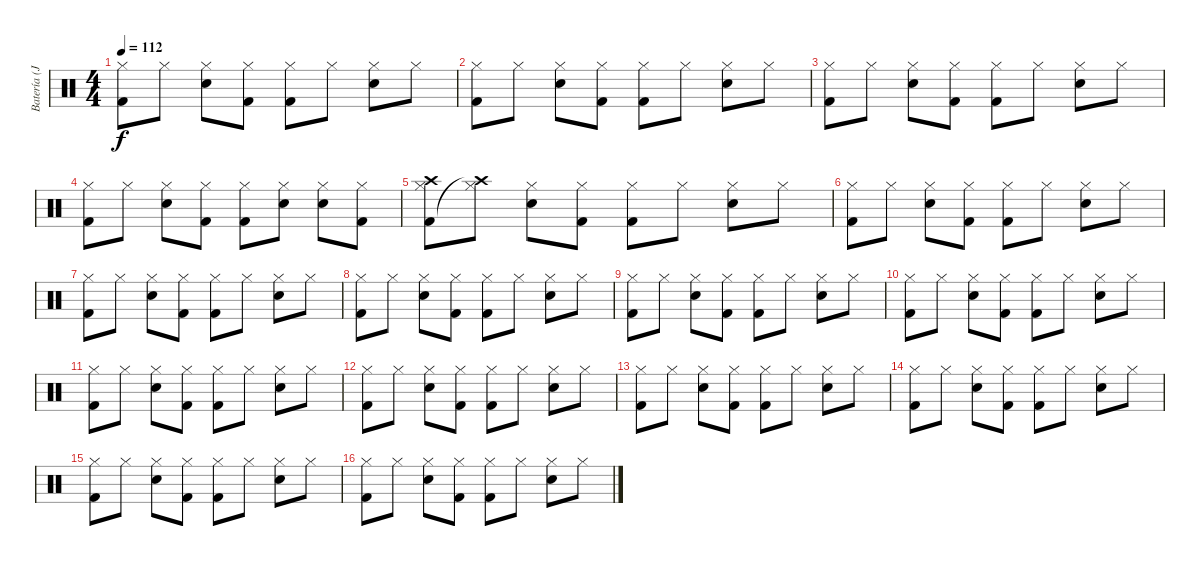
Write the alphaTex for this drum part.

\track ("Batería (Javi Molina)" "Batería (J") {instrument percussion}
\staff {score}
\articulation defaults
\ts (4 4)
\tempo 112
\clef neutral
\ks c
("Hi-Hat (closed)" "Kick (hit) 2").8{dy f} "Hi-Hat (closed)".8 ("Hi-Hat (closed)" "Electric Snare (hit)").8 ("Hi-Hat (closed)" "Kick (hit) 2").8 ("Hi-Hat (closed)" "Kick (hit) 2").8 "Hi-Hat (closed)".8 ("Hi-Hat (closed)" "Electric Snare (hit)").8 "Hi-Hat (closed)".8 |
("Hi-Hat (closed)" "Kick (hit) 2").8 "Hi-Hat (closed)".8 ("Hi-Hat (closed)" "Electric Snare (hit)").8 ("Hi-Hat (closed)" "Kick (hit) 2").8 ("Hi-Hat (closed)" "Kick (hit) 2").8 "Hi-Hat (closed)".8 ("Hi-Hat (closed)" "Electric Snare (hit)").8 "Hi-Hat (closed)".8 |
("Hi-Hat (closed)" "Kick (hit) 2").8 "Hi-Hat (closed)".8 ("Hi-Hat (closed)" "Electric Snare (hit)").8 ("Hi-Hat (closed)" "Kick (hit) 2").8 ("Hi-Hat (closed)" "Kick (hit) 2").8 "Hi-Hat (closed)".8 ("Hi-Hat (closed)" "Electric Snare (hit)").8 "Hi-Hat (closed)".8 |
("Hi-Hat (closed)" "Kick (hit) 2").8 "Hi-Hat (closed)".8 ("Hi-Hat (closed)" "Electric Snare (hit)").8 ("Hi-Hat (closed)" "Kick (hit) 2").8 ("Hi-Hat (closed)" "Kick (hit) 2").8 ("Hi-Hat (closed)" "Electric Snare (hit)").8 ("Hi-Hat (closed)" "Electric Snare (hit)").8 ("Hi-Hat (closed)" "Kick (hit) 2").8 |
("Hi-Hat (closed)" "Kick (hit) 2" "Crash high (hit)").8 ("Hi-Hat (closed)" "Crash high (hit)"{t}).8 ("Hi-Hat (closed)" "Electric Snare (hit)").8 ("Hi-Hat (closed)" "Kick (hit) 2").8 ("Hi-Hat (closed)" "Kick (hit) 2").8 "Hi-Hat (closed)".8 ("Hi-Hat (closed)" "Electric Snare (hit)").8 "Hi-Hat (closed)".8 |
("Hi-Hat (closed)" "Kick (hit) 2").8 "Hi-Hat (closed)".8 ("Hi-Hat (closed)" "Electric Snare (hit)").8 ("Hi-Hat (closed)" "Kick (hit) 2").8 ("Hi-Hat (closed)" "Kick (hit) 2").8 "Hi-Hat (closed)".8 ("Hi-Hat (closed)" "Electric Snare (hit)").8 "Hi-Hat (closed)".8 |
("Hi-Hat (closed)" "Kick (hit) 2").8 "Hi-Hat (closed)".8 ("Hi-Hat (closed)" "Electric Snare (hit)").8 ("Hi-Hat (closed)" "Kick (hit) 2").8 ("Hi-Hat (closed)" "Kick (hit) 2").8 "Hi-Hat (closed)".8 ("Hi-Hat (closed)" "Electric Snare (hit)").8 "Hi-Hat (closed)".8 |
("Hi-Hat (closed)" "Kick (hit) 2").8 "Hi-Hat (closed)".8 ("Hi-Hat (closed)" "Electric Snare (hit)").8 ("Hi-Hat (closed)" "Kick (hit) 2").8 ("Hi-Hat (closed)" "Kick (hit) 2").8 "Hi-Hat (closed)".8 ("Hi-Hat (closed)" "Electric Snare (hit)").8 "Hi-Hat (closed)".8 |
("Hi-Hat (closed)" "Kick (hit) 2").8 "Hi-Hat (closed)".8 ("Hi-Hat (closed)" "Electric Snare (hit)").8 ("Hi-Hat (closed)" "Kick (hit) 2").8 ("Hi-Hat (closed)" "Kick (hit) 2").8 "Hi-Hat (closed)".8 ("Hi-Hat (closed)" "Electric Snare (hit)").8 "Hi-Hat (closed)".8 |
("Hi-Hat (closed)" "Kick (hit) 2").8 "Hi-Hat (closed)".8 ("Hi-Hat (closed)" "Electric Snare (hit)").8 ("Hi-Hat (closed)" "Kick (hit) 2").8 ("Hi-Hat (closed)" "Kick (hit) 2").8 "Hi-Hat (closed)".8 ("Hi-Hat (closed)" "Electric Snare (hit)").8 "Hi-Hat (closed)".8 |
("Hi-Hat (closed)" "Kick (hit) 2").8 "Hi-Hat (closed)".8 ("Hi-Hat (closed)" "Electric Snare (hit)").8 ("Hi-Hat (closed)" "Kick (hit) 2").8 ("Hi-Hat (closed)" "Kick (hit) 2").8 "Hi-Hat (closed)".8 ("Hi-Hat (closed)" "Electric Snare (hit)").8 "Hi-Hat (closed)".8 |
("Hi-Hat (closed)" "Kick (hit) 2").8 "Hi-Hat (closed)".8 ("Hi-Hat (closed)" "Electric Snare (hit)").8 ("Hi-Hat (closed)" "Kick (hit) 2").8 ("Hi-Hat (closed)" "Kick (hit) 2").8 "Hi-Hat (closed)".8 ("Hi-Hat (closed)" "Electric Snare (hit)").8 "Hi-Hat (closed)".8 |
("Hi-Hat (closed)" "Kick (hit) 2").8 "Hi-Hat (closed)".8 ("Hi-Hat (closed)" "Electric Snare (hit)").8 ("Hi-Hat (closed)" "Kick (hit) 2").8 ("Hi-Hat (closed)" "Kick (hit) 2").8 "Hi-Hat (closed)".8 ("Hi-Hat (closed)" "Electric Snare (hit)").8 "Hi-Hat (closed)".8 |
("Hi-Hat (closed)" "Kick (hit) 2").8 "Hi-Hat (closed)".8 ("Hi-Hat (closed)" "Electric Snare (hit)").8 ("Hi-Hat (closed)" "Kick (hit) 2").8 ("Hi-Hat (closed)" "Kick (hit) 2").8 "Hi-Hat (closed)".8 ("Hi-Hat (closed)" "Electric Snare (hit)").8 "Hi-Hat (closed)".8 |
("Hi-Hat (closed)" "Kick (hit) 2").8 "Hi-Hat (closed)".8 ("Hi-Hat (closed)" "Electric Snare (hit)").8 ("Hi-Hat (closed)" "Kick (hit) 2").8 ("Hi-Hat (closed)" "Kick (hit) 2").8 "Hi-Hat (closed)".8 ("Hi-Hat (closed)" "Electric Snare (hit)").8 "Hi-Hat (closed)".8 |
("Hi-Hat (closed)" "Kick (hit) 2").8 "Hi-Hat (closed)".8 ("Hi-Hat (closed)" "Electric Snare (hit)").8 ("Hi-Hat (closed)" "Kick (hit) 2").8 ("Hi-Hat (closed)" "Kick (hit) 2").8 "Hi-Hat (closed)".8 ("Hi-Hat (closed)" "Electric Snare (hit)").8 "Hi-Hat (closed)".8
